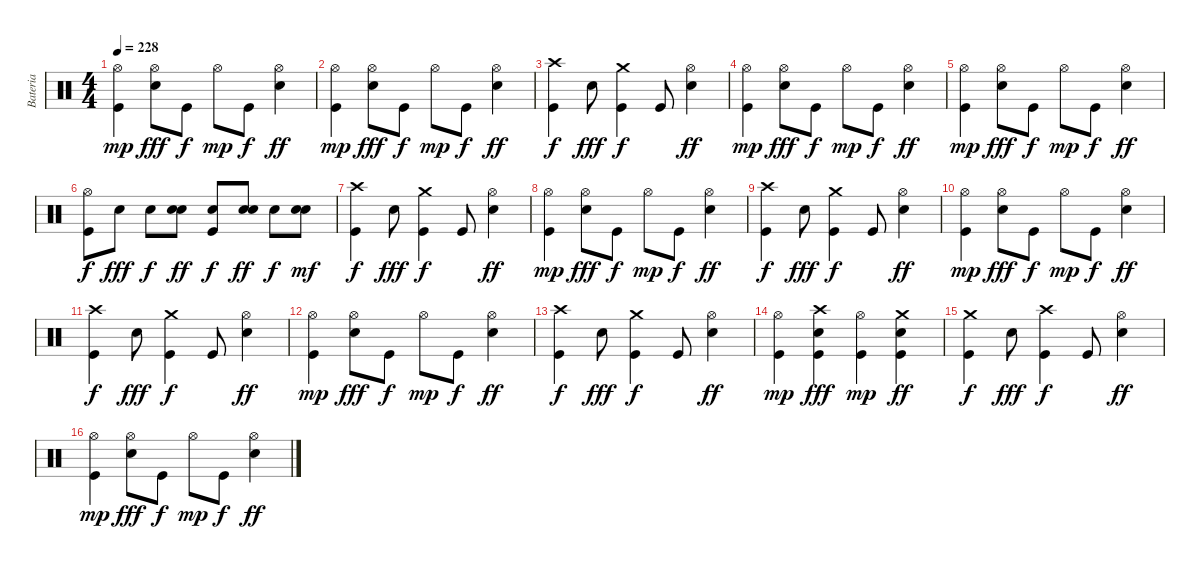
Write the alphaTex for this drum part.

\track ("Bateria" "Bateria") {instrument percussion}
\staff {score}
\articulation defaults
\ts (4 4)
\tempo 228
\clef neutral
\ks c
("Hi-Hat (open)" "Kick (hit)").4{dy mp} ("Hi-Hat (open)" "Electric Snare (hit)").8{dy fff} "Kick (hit)".8{dy f} "Hi-Hat (open)".8{dy mp} "Kick (hit)".8{dy f} ("Hi-Hat (open)" "Electric Snare (hit)").4{dy ff} |
("Hi-Hat (open)" "Kick (hit)").4{dy mp} ("Hi-Hat (open)" "Electric Snare (hit)").8{dy fff} "Kick (hit)".8{dy f} "Hi-Hat (open)".8{dy mp} "Kick (hit)".8{dy f} ("Hi-Hat (open)" "Electric Snare (hit)").4{dy ff} |
("Crash high (hit)" "Kick (hit)").4{dy f} "Electric Snare (hit)".8{dy fff} ("Crash medium (hit)" "Kick (hit)").4{dy f} "Kick (hit)".8 ("Hi-Hat (open)" "Electric Snare (hit)").4{dy ff} |
("Hi-Hat (open)" "Kick (hit)").4{dy mp} ("Hi-Hat (open)" "Electric Snare (hit)").8{dy fff} "Kick (hit)".8{dy f} "Hi-Hat (open)".8{dy mp} "Kick (hit)".8{dy f} ("Hi-Hat (open)" "Electric Snare (hit)").4{dy ff} |
("Hi-Hat (open)" "Kick (hit)").4{dy mp} ("Hi-Hat (open)" "Electric Snare (hit)").8{dy fff} "Kick (hit)".8{dy f} "Hi-Hat (open)".8{dy mp} "Kick (hit)".8{dy f} ("Hi-Hat (open)" "Electric Snare (hit)").4{dy ff} |
("Hi-Hat (open)" "Kick (hit)").8{dy f} "Electric Snare (hit)".8{dy fff} "Electric Snare (hit)".8{dy f} ("Electric Snare (hit)" "Electric Snare (hit)").8{dy ff} ("Electric Snare (hit)" "Kick (hit)").8{dy f} ("Electric Snare (hit)" "Electric Snare (hit)").8{dy ff} "Electric Snare (hit)".8{dy f} ("Electric Snare (hit)" "Electric Snare (hit)").8{dy mf} |
("Crash high (hit)" "Kick (hit)").4{dy f} "Electric Snare (hit)".8{dy fff} ("Crash medium (hit)" "Kick (hit)").4{dy f} "Kick (hit)".8 ("Hi-Hat (open)" "Electric Snare (hit)").4{dy ff} |
("Hi-Hat (open)" "Kick (hit)").4{dy mp} ("Hi-Hat (open)" "Electric Snare (hit)").8{dy fff} "Kick (hit)".8{dy f} "Hi-Hat (open)".8{dy mp} "Kick (hit)".8{dy f} ("Hi-Hat (open)" "Electric Snare (hit)").4{dy ff} |
("Crash high (hit)" "Kick (hit)").4{dy f} "Electric Snare (hit)".8{dy fff} ("Crash medium (hit)" "Kick (hit)").4{dy f} "Kick (hit)".8 ("Hi-Hat (open)" "Electric Snare (hit)").4{dy ff} |
("Hi-Hat (open)" "Kick (hit)").4{dy mp} ("Hi-Hat (open)" "Electric Snare (hit)").8{dy fff} "Kick (hit)".8{dy f} "Hi-Hat (open)".8{dy mp} "Kick (hit)".8{dy f} ("Hi-Hat (open)" "Electric Snare (hit)").4{dy ff} |
("Crash high (hit)" "Kick (hit)").4{dy f} "Electric Snare (hit)".8{dy fff} ("Crash medium (hit)" "Kick (hit)").4{dy f} "Kick (hit)".8 ("Hi-Hat (open)" "Electric Snare (hit)").4{dy ff} |
("Hi-Hat (open)" "Kick (hit)").4{dy mp} ("Hi-Hat (open)" "Electric Snare (hit)").8{dy fff} "Kick (hit)".8{dy f} "Hi-Hat (open)".8{dy mp} "Kick (hit)".8{dy f} ("Hi-Hat (open)" "Electric Snare (hit)").4{dy ff} |
("Crash high (hit)" "Kick (hit)").4{dy f} "Electric Snare (hit)".8{dy fff} ("Crash medium (hit)" "Kick (hit)").4{dy f} "Kick (hit)".8 ("Hi-Hat (open)" "Electric Snare (hit)").4{dy ff} |
("Hi-Hat (open)" "Kick (hit)").4{dy mp} ("Crash high (hit)" "Kick (hit)" "Electric Snare (hit)").4{dy fff} ("Hi-Hat (open)" "Kick (hit)").4{dy mp} ("Crash medium (hit)" "Kick (hit)" "Electric Snare (hit)").4{dy ff} |
("Crash medium (hit)" "Kick (hit)").4{dy f} "Electric Snare (hit)".8{dy fff} ("Crash high (hit)" "Kick (hit)").4{dy f} "Kick (hit)".8 ("Hi-Hat (open)" "Electric Snare (hit)").4{dy ff} |
("Hi-Hat (open)" "Kick (hit)").4{dy mp} ("Hi-Hat (open)" "Electric Snare (hit)").8{dy fff} "Kick (hit)".8{dy f} "Hi-Hat (open)".8{dy mp} "Kick (hit)".8{dy f} ("Hi-Hat (open)" "Electric Snare (hit)").4{dy ff}
